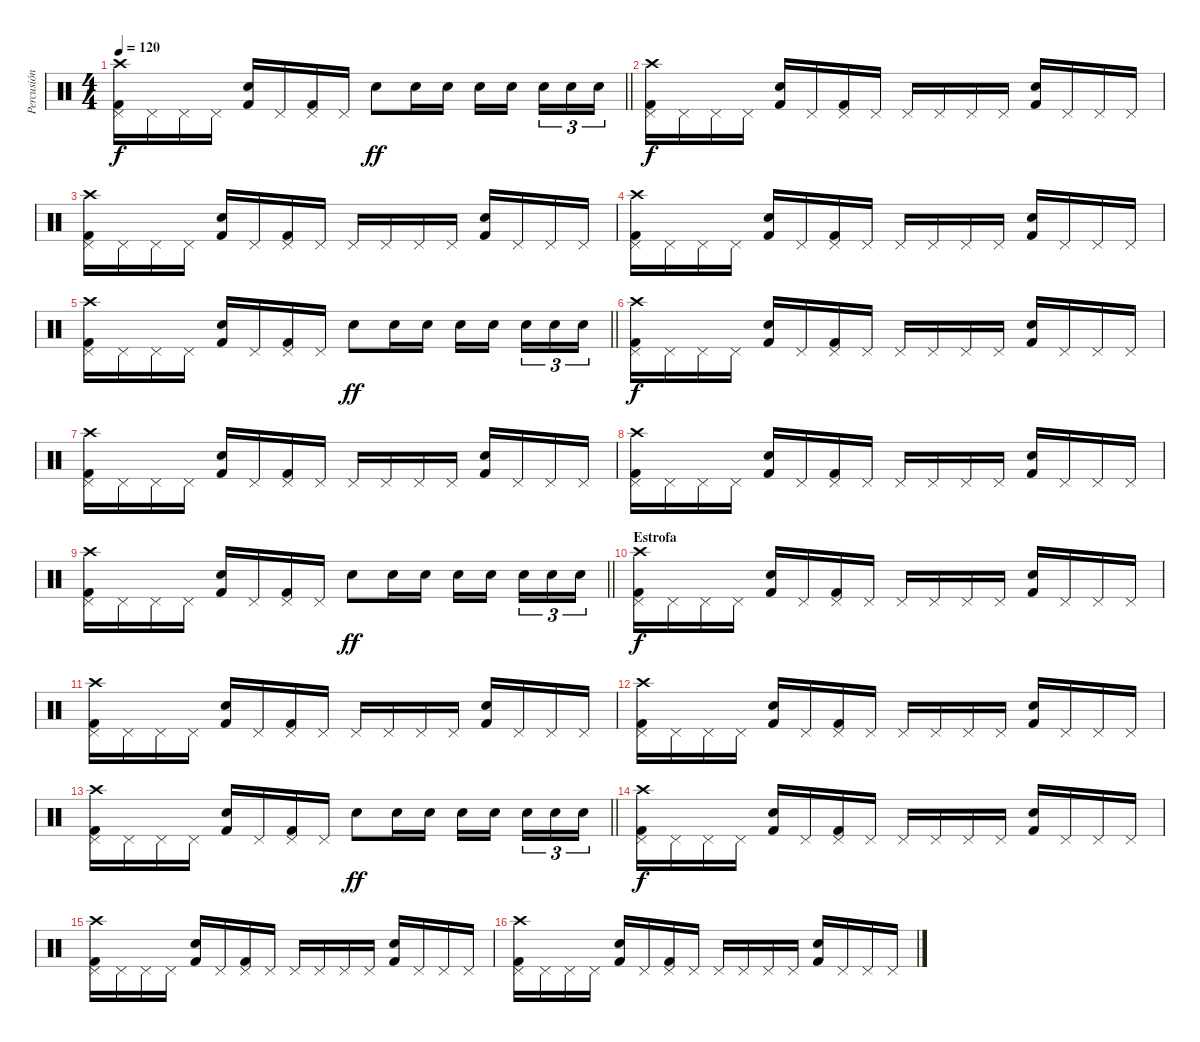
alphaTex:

\track ("Percusión" "Percusión") {instrument percussion}
\staff {score}
\articulation defaults
\ts (4 4)
\tempo 120
\clef neutral
\barLineRight lightlight
\ks c
("Pedal Hi-Hat (hit)" "Kick (hit) 2" "Crash high (hit)").16{dy f} "Pedal Hi-Hat (hit)".16 "Pedal Hi-Hat (hit)".16 "Pedal Hi-Hat (hit)".16 ("Snare (hit) 2" "Kick (hit) 2").16 "Pedal Hi-Hat (hit)".16 ("Pedal Hi-Hat (hit)" "Kick (hit) 2").16 "Pedal Hi-Hat (hit)".16 "Snare (hit) 2".8{dy ff} "Snare (hit) 2".16 "Snare (hit) 2".16 "Snare (hit) 2".16 "Snare (hit) 2".16{beam splitsecondary} "Snare (hit) 2".16{tu (3 2)} "Snare (hit) 2".16{tu (3 2)} "Snare (hit) 2".16{tu (3 2)} |
("Pedal Hi-Hat (hit)" "Kick (hit) 2" "Crash high (hit)").16{dy f} "Pedal Hi-Hat (hit)".16 "Pedal Hi-Hat (hit)".16 "Pedal Hi-Hat (hit)".16 ("Snare (hit) 2" "Kick (hit) 2").16 "Pedal Hi-Hat (hit)".16 ("Pedal Hi-Hat (hit)" "Kick (hit) 2").16 "Pedal Hi-Hat (hit)".16 "Pedal Hi-Hat (hit)".16 "Pedal Hi-Hat (hit)".16 "Pedal Hi-Hat (hit)".16 "Pedal Hi-Hat (hit)".16 ("Snare (hit) 2" "Kick (hit) 2").16 "Pedal Hi-Hat (hit)".16 "Pedal Hi-Hat (hit)".16 "Pedal Hi-Hat (hit)".16 |
("Pedal Hi-Hat (hit)" "Kick (hit) 2" "Crash high (hit)").16 "Pedal Hi-Hat (hit)".16 "Pedal Hi-Hat (hit)".16 "Pedal Hi-Hat (hit)".16 ("Snare (hit) 2" "Kick (hit) 2").16 "Pedal Hi-Hat (hit)".16 ("Pedal Hi-Hat (hit)" "Kick (hit) 2").16 "Pedal Hi-Hat (hit)".16 "Pedal Hi-Hat (hit)".16 "Pedal Hi-Hat (hit)".16 "Pedal Hi-Hat (hit)".16 "Pedal Hi-Hat (hit)".16 ("Snare (hit) 2" "Kick (hit) 2").16 "Pedal Hi-Hat (hit)".16 "Pedal Hi-Hat (hit)".16 "Pedal Hi-Hat (hit)".16 |
("Pedal Hi-Hat (hit)" "Kick (hit) 2" "Crash high (hit)").16 "Pedal Hi-Hat (hit)".16 "Pedal Hi-Hat (hit)".16 "Pedal Hi-Hat (hit)".16 ("Snare (hit) 2" "Kick (hit) 2").16 "Pedal Hi-Hat (hit)".16 ("Pedal Hi-Hat (hit)" "Kick (hit) 2").16 "Pedal Hi-Hat (hit)".16 "Pedal Hi-Hat (hit)".16 "Pedal Hi-Hat (hit)".16 "Pedal Hi-Hat (hit)".16 "Pedal Hi-Hat (hit)".16 ("Snare (hit) 2" "Kick (hit) 2").16 "Pedal Hi-Hat (hit)".16 "Pedal Hi-Hat (hit)".16 "Pedal Hi-Hat (hit)".16 |
\barLineRight lightlight
("Pedal Hi-Hat (hit)" "Kick (hit) 2" "Crash high (hit)").16 "Pedal Hi-Hat (hit)".16 "Pedal Hi-Hat (hit)".16 "Pedal Hi-Hat (hit)".16 ("Snare (hit) 2" "Kick (hit) 2").16 "Pedal Hi-Hat (hit)".16 ("Pedal Hi-Hat (hit)" "Kick (hit) 2").16 "Pedal Hi-Hat (hit)".16 "Snare (hit) 2".8{dy ff} "Snare (hit) 2".16 "Snare (hit) 2".16 "Snare (hit) 2".16 "Snare (hit) 2".16{beam splitsecondary} "Snare (hit) 2".16{tu (3 2)} "Snare (hit) 2".16{tu (3 2)} "Snare (hit) 2".16{tu (3 2)} |
("Pedal Hi-Hat (hit)" "Kick (hit) 2" "Crash high (hit)").16{dy f} "Pedal Hi-Hat (hit)".16 "Pedal Hi-Hat (hit)".16 "Pedal Hi-Hat (hit)".16 ("Snare (hit) 2" "Kick (hit) 2").16 "Pedal Hi-Hat (hit)".16 ("Pedal Hi-Hat (hit)" "Kick (hit) 2").16 "Pedal Hi-Hat (hit)".16 "Pedal Hi-Hat (hit)".16 "Pedal Hi-Hat (hit)".16 "Pedal Hi-Hat (hit)".16 "Pedal Hi-Hat (hit)".16 ("Snare (hit) 2" "Kick (hit) 2").16 "Pedal Hi-Hat (hit)".16 "Pedal Hi-Hat (hit)".16 "Pedal Hi-Hat (hit)".16 |
("Pedal Hi-Hat (hit)" "Kick (hit) 2" "Crash high (hit)").16 "Pedal Hi-Hat (hit)".16 "Pedal Hi-Hat (hit)".16 "Pedal Hi-Hat (hit)".16 ("Snare (hit) 2" "Kick (hit) 2").16 "Pedal Hi-Hat (hit)".16 ("Pedal Hi-Hat (hit)" "Kick (hit) 2").16 "Pedal Hi-Hat (hit)".16 "Pedal Hi-Hat (hit)".16 "Pedal Hi-Hat (hit)".16 "Pedal Hi-Hat (hit)".16 "Pedal Hi-Hat (hit)".16 ("Snare (hit) 2" "Kick (hit) 2").16 "Pedal Hi-Hat (hit)".16 "Pedal Hi-Hat (hit)".16 "Pedal Hi-Hat (hit)".16 |
("Pedal Hi-Hat (hit)" "Kick (hit) 2" "Crash high (hit)").16 "Pedal Hi-Hat (hit)".16 "Pedal Hi-Hat (hit)".16 "Pedal Hi-Hat (hit)".16 ("Snare (hit) 2" "Kick (hit) 2").16 "Pedal Hi-Hat (hit)".16 ("Pedal Hi-Hat (hit)" "Kick (hit) 2").16 "Pedal Hi-Hat (hit)".16 "Pedal Hi-Hat (hit)".16 "Pedal Hi-Hat (hit)".16 "Pedal Hi-Hat (hit)".16 "Pedal Hi-Hat (hit)".16 ("Snare (hit) 2" "Kick (hit) 2").16 "Pedal Hi-Hat (hit)".16 "Pedal Hi-Hat (hit)".16 "Pedal Hi-Hat (hit)".16 |
\barLineRight lightlight
("Pedal Hi-Hat (hit)" "Kick (hit) 2" "Crash high (hit)").16 "Pedal Hi-Hat (hit)".16 "Pedal Hi-Hat (hit)".16 "Pedal Hi-Hat (hit)".16 ("Snare (hit) 2" "Kick (hit) 2").16 "Pedal Hi-Hat (hit)".16 ("Pedal Hi-Hat (hit)" "Kick (hit) 2").16 "Pedal Hi-Hat (hit)".16 "Snare (hit) 2".8{dy ff} "Snare (hit) 2".16 "Snare (hit) 2".16 "Snare (hit) 2".16 "Snare (hit) 2".16{beam splitsecondary} "Snare (hit) 2".16{tu (3 2)} "Snare (hit) 2".16{tu (3 2)} "Snare (hit) 2".16{tu (3 2)} |
\section ("" "Estrofa")
("Pedal Hi-Hat (hit)" "Kick (hit) 2" "Crash high (hit)").16{dy f} "Pedal Hi-Hat (hit)".16 "Pedal Hi-Hat (hit)".16 "Pedal Hi-Hat (hit)".16 ("Snare (hit) 2" "Kick (hit) 2").16 "Pedal Hi-Hat (hit)".16 ("Pedal Hi-Hat (hit)" "Kick (hit) 2").16 "Pedal Hi-Hat (hit)".16 "Pedal Hi-Hat (hit)".16 "Pedal Hi-Hat (hit)".16 "Pedal Hi-Hat (hit)".16 "Pedal Hi-Hat (hit)".16 ("Snare (hit) 2" "Kick (hit) 2").16 "Pedal Hi-Hat (hit)".16 "Pedal Hi-Hat (hit)".16 "Pedal Hi-Hat (hit)".16 |
("Pedal Hi-Hat (hit)" "Kick (hit) 2" "Crash high (hit)").16 "Pedal Hi-Hat (hit)".16 "Pedal Hi-Hat (hit)".16 "Pedal Hi-Hat (hit)".16 ("Snare (hit) 2" "Kick (hit) 2").16 "Pedal Hi-Hat (hit)".16 ("Pedal Hi-Hat (hit)" "Kick (hit) 2").16 "Pedal Hi-Hat (hit)".16 "Pedal Hi-Hat (hit)".16 "Pedal Hi-Hat (hit)".16 "Pedal Hi-Hat (hit)".16 "Pedal Hi-Hat (hit)".16 ("Snare (hit) 2" "Kick (hit) 2").16 "Pedal Hi-Hat (hit)".16 "Pedal Hi-Hat (hit)".16 "Pedal Hi-Hat (hit)".16 |
("Pedal Hi-Hat (hit)" "Kick (hit) 2" "Crash high (hit)").16 "Pedal Hi-Hat (hit)".16 "Pedal Hi-Hat (hit)".16 "Pedal Hi-Hat (hit)".16 ("Snare (hit) 2" "Kick (hit) 2").16 "Pedal Hi-Hat (hit)".16 ("Pedal Hi-Hat (hit)" "Kick (hit) 2").16 "Pedal Hi-Hat (hit)".16 "Pedal Hi-Hat (hit)".16 "Pedal Hi-Hat (hit)".16 "Pedal Hi-Hat (hit)".16 "Pedal Hi-Hat (hit)".16 ("Snare (hit) 2" "Kick (hit) 2").16 "Pedal Hi-Hat (hit)".16 "Pedal Hi-Hat (hit)".16 "Pedal Hi-Hat (hit)".16 |
\barLineRight lightlight
("Pedal Hi-Hat (hit)" "Kick (hit) 2" "Crash high (hit)").16 "Pedal Hi-Hat (hit)".16 "Pedal Hi-Hat (hit)".16 "Pedal Hi-Hat (hit)".16 ("Snare (hit) 2" "Kick (hit) 2").16 "Pedal Hi-Hat (hit)".16 ("Pedal Hi-Hat (hit)" "Kick (hit) 2").16 "Pedal Hi-Hat (hit)".16 "Snare (hit) 2".8{dy ff} "Snare (hit) 2".16 "Snare (hit) 2".16 "Snare (hit) 2".16 "Snare (hit) 2".16{beam splitsecondary} "Snare (hit) 2".16{tu (3 2)} "Snare (hit) 2".16{tu (3 2)} "Snare (hit) 2".16{tu (3 2)} |
("Pedal Hi-Hat (hit)" "Kick (hit) 2" "Crash high (hit)").16{dy f} "Pedal Hi-Hat (hit)".16 "Pedal Hi-Hat (hit)".16 "Pedal Hi-Hat (hit)".16 ("Snare (hit) 2" "Kick (hit) 2").16 "Pedal Hi-Hat (hit)".16 ("Pedal Hi-Hat (hit)" "Kick (hit) 2").16 "Pedal Hi-Hat (hit)".16 "Pedal Hi-Hat (hit)".16 "Pedal Hi-Hat (hit)".16 "Pedal Hi-Hat (hit)".16 "Pedal Hi-Hat (hit)".16 ("Snare (hit) 2" "Kick (hit) 2").16 "Pedal Hi-Hat (hit)".16 "Pedal Hi-Hat (hit)".16 "Pedal Hi-Hat (hit)".16 |
("Pedal Hi-Hat (hit)" "Kick (hit) 2" "Crash high (hit)").16 "Pedal Hi-Hat (hit)".16 "Pedal Hi-Hat (hit)".16 "Pedal Hi-Hat (hit)".16 ("Snare (hit) 2" "Kick (hit) 2").16 "Pedal Hi-Hat (hit)".16 ("Pedal Hi-Hat (hit)" "Kick (hit) 2").16 "Pedal Hi-Hat (hit)".16 "Pedal Hi-Hat (hit)".16 "Pedal Hi-Hat (hit)".16 "Pedal Hi-Hat (hit)".16 "Pedal Hi-Hat (hit)".16 ("Snare (hit) 2" "Kick (hit) 2").16 "Pedal Hi-Hat (hit)".16 "Pedal Hi-Hat (hit)".16 "Pedal Hi-Hat (hit)".16 |
("Pedal Hi-Hat (hit)" "Kick (hit) 2" "Crash high (hit)").16 "Pedal Hi-Hat (hit)".16 "Pedal Hi-Hat (hit)".16 "Pedal Hi-Hat (hit)".16 ("Snare (hit) 2" "Kick (hit) 2").16 "Pedal Hi-Hat (hit)".16 ("Pedal Hi-Hat (hit)" "Kick (hit) 2").16 "Pedal Hi-Hat (hit)".16 "Pedal Hi-Hat (hit)".16 "Pedal Hi-Hat (hit)".16 "Pedal Hi-Hat (hit)".16 "Pedal Hi-Hat (hit)".16 ("Snare (hit) 2" "Kick (hit) 2").16 "Pedal Hi-Hat (hit)".16 "Pedal Hi-Hat (hit)".16 "Pedal Hi-Hat (hit)".16
